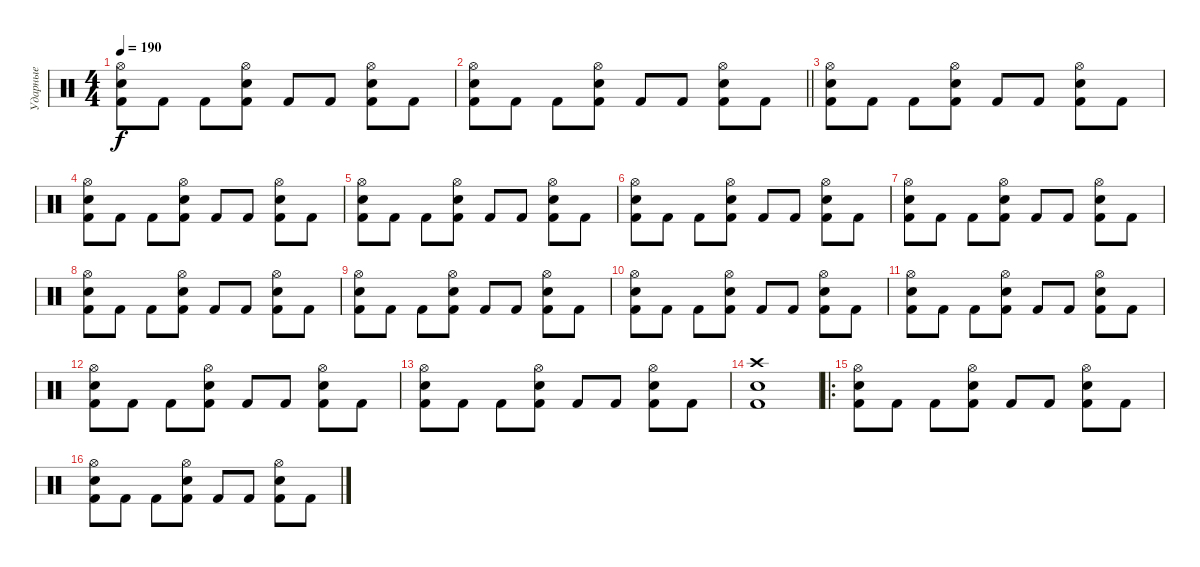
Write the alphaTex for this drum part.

\track ("Ударные" "Ударные") {instrument percussion}
\staff {score}
\articulation defaults
\ts (4 4)
\tempo 190
\clef neutral
\ks c
("Kick (hit) 2" "Snare (hit) 2" "Hi-Hat (open)").8{dy f} "Kick (hit) 2".8 "Kick (hit) 2".8 ("Kick (hit) 2" "Snare (hit) 2" "Hi-Hat (open)").8 "Kick (hit) 2".8 "Kick (hit) 2".8 ("Kick (hit) 2" "Snare (hit) 2" "Hi-Hat (open)").8 "Kick (hit) 2".8 |
\barLineRight lightlight
("Kick (hit) 2" "Snare (hit) 2" "Hi-Hat (open)").8 "Kick (hit) 2".8 "Kick (hit) 2".8 ("Kick (hit) 2" "Snare (hit) 2" "Hi-Hat (open)").8 "Kick (hit) 2".8 "Kick (hit) 2".8 ("Kick (hit) 2" "Snare (hit) 2" "Hi-Hat (open)").8 "Kick (hit) 2".8 |
("Kick (hit) 2" "Snare (hit) 2" "Hi-Hat (open)").8 "Kick (hit) 2".8 "Kick (hit) 2".8 ("Kick (hit) 2" "Snare (hit) 2" "Hi-Hat (open)").8 "Kick (hit) 2".8 "Kick (hit) 2".8 ("Kick (hit) 2" "Snare (hit) 2" "Hi-Hat (open)").8 "Kick (hit) 2".8 |
("Kick (hit) 2" "Snare (hit) 2" "Hi-Hat (open)").8 "Kick (hit) 2".8 "Kick (hit) 2".8 ("Kick (hit) 2" "Snare (hit) 2" "Hi-Hat (open)").8 "Kick (hit) 2".8 "Kick (hit) 2".8 ("Kick (hit) 2" "Snare (hit) 2" "Hi-Hat (open)").8 "Kick (hit) 2".8 |
("Kick (hit) 2" "Snare (hit) 2" "Hi-Hat (open)").8 "Kick (hit) 2".8 "Kick (hit) 2".8 ("Kick (hit) 2" "Snare (hit) 2" "Hi-Hat (open)").8 "Kick (hit) 2".8 "Kick (hit) 2".8 ("Kick (hit) 2" "Snare (hit) 2" "Hi-Hat (open)").8 "Kick (hit) 2".8 |
("Kick (hit) 2" "Snare (hit) 2" "Hi-Hat (open)").8 "Kick (hit) 2".8 "Kick (hit) 2".8 ("Kick (hit) 2" "Snare (hit) 2" "Hi-Hat (open)").8 "Kick (hit) 2".8 "Kick (hit) 2".8 ("Kick (hit) 2" "Snare (hit) 2" "Hi-Hat (open)").8 "Kick (hit) 2".8 |
("Kick (hit) 2" "Snare (hit) 2" "Hi-Hat (open)").8 "Kick (hit) 2".8 "Kick (hit) 2".8 ("Kick (hit) 2" "Snare (hit) 2" "Hi-Hat (open)").8 "Kick (hit) 2".8 "Kick (hit) 2".8 ("Kick (hit) 2" "Snare (hit) 2" "Hi-Hat (open)").8 "Kick (hit) 2".8 |
("Kick (hit) 2" "Snare (hit) 2" "Hi-Hat (open)").8 "Kick (hit) 2".8 "Kick (hit) 2".8 ("Kick (hit) 2" "Snare (hit) 2" "Hi-Hat (open)").8 "Kick (hit) 2".8 "Kick (hit) 2".8 ("Kick (hit) 2" "Snare (hit) 2" "Hi-Hat (open)").8 "Kick (hit) 2".8 |
("Kick (hit) 2" "Snare (hit) 2" "Hi-Hat (open)").8 "Kick (hit) 2".8 "Kick (hit) 2".8 ("Kick (hit) 2" "Snare (hit) 2" "Hi-Hat (open)").8 "Kick (hit) 2".8 "Kick (hit) 2".8 ("Kick (hit) 2" "Snare (hit) 2" "Hi-Hat (open)").8 "Kick (hit) 2".8 |
("Kick (hit) 2" "Snare (hit) 2" "Hi-Hat (open)").8 "Kick (hit) 2".8 "Kick (hit) 2".8 ("Kick (hit) 2" "Snare (hit) 2" "Hi-Hat (open)").8 "Kick (hit) 2".8 "Kick (hit) 2".8 ("Kick (hit) 2" "Snare (hit) 2" "Hi-Hat (open)").8 "Kick (hit) 2".8 |
("Kick (hit) 2" "Snare (hit) 2" "Hi-Hat (open)").8 "Kick (hit) 2".8 "Kick (hit) 2".8 ("Kick (hit) 2" "Snare (hit) 2" "Hi-Hat (open)").8 "Kick (hit) 2".8 "Kick (hit) 2".8 ("Kick (hit) 2" "Snare (hit) 2" "Hi-Hat (open)").8 "Kick (hit) 2".8 |
("Kick (hit) 2" "Snare (hit) 2" "Hi-Hat (open)").8 "Kick (hit) 2".8 "Kick (hit) 2".8 ("Kick (hit) 2" "Snare (hit) 2" "Hi-Hat (open)").8 "Kick (hit) 2".8 "Kick (hit) 2".8 ("Kick (hit) 2" "Snare (hit) 2" "Hi-Hat (open)").8 "Kick (hit) 2".8 |
("Kick (hit) 2" "Snare (hit) 2" "Hi-Hat (open)").8 "Kick (hit) 2".8 "Kick (hit) 2".8 ("Kick (hit) 2" "Snare (hit) 2" "Hi-Hat (open)").8 "Kick (hit) 2".8 "Kick (hit) 2".8 ("Kick (hit) 2" "Snare (hit) 2" "Hi-Hat (open)").8 "Kick (hit) 2".8 |
("Kick (hit) 2" "Snare (hit) 2" "Crash high (hit)").1 |
\ro
("Kick (hit) 2" "Snare (hit) 2" "Hi-Hat (open)").8 "Kick (hit) 2".8 "Kick (hit) 2".8 ("Kick (hit) 2" "Snare (hit) 2" "Hi-Hat (open)").8 "Kick (hit) 2".8 "Kick (hit) 2".8 ("Kick (hit) 2" "Snare (hit) 2" "Hi-Hat (open)").8 "Kick (hit) 2".8 |
("Kick (hit) 2" "Snare (hit) 2" "Hi-Hat (open)").8 "Kick (hit) 2".8 "Kick (hit) 2".8 ("Kick (hit) 2" "Snare (hit) 2" "Hi-Hat (open)").8 "Kick (hit) 2".8 "Kick (hit) 2".8 ("Kick (hit) 2" "Snare (hit) 2" "Hi-Hat (open)").8 "Kick (hit) 2".8
